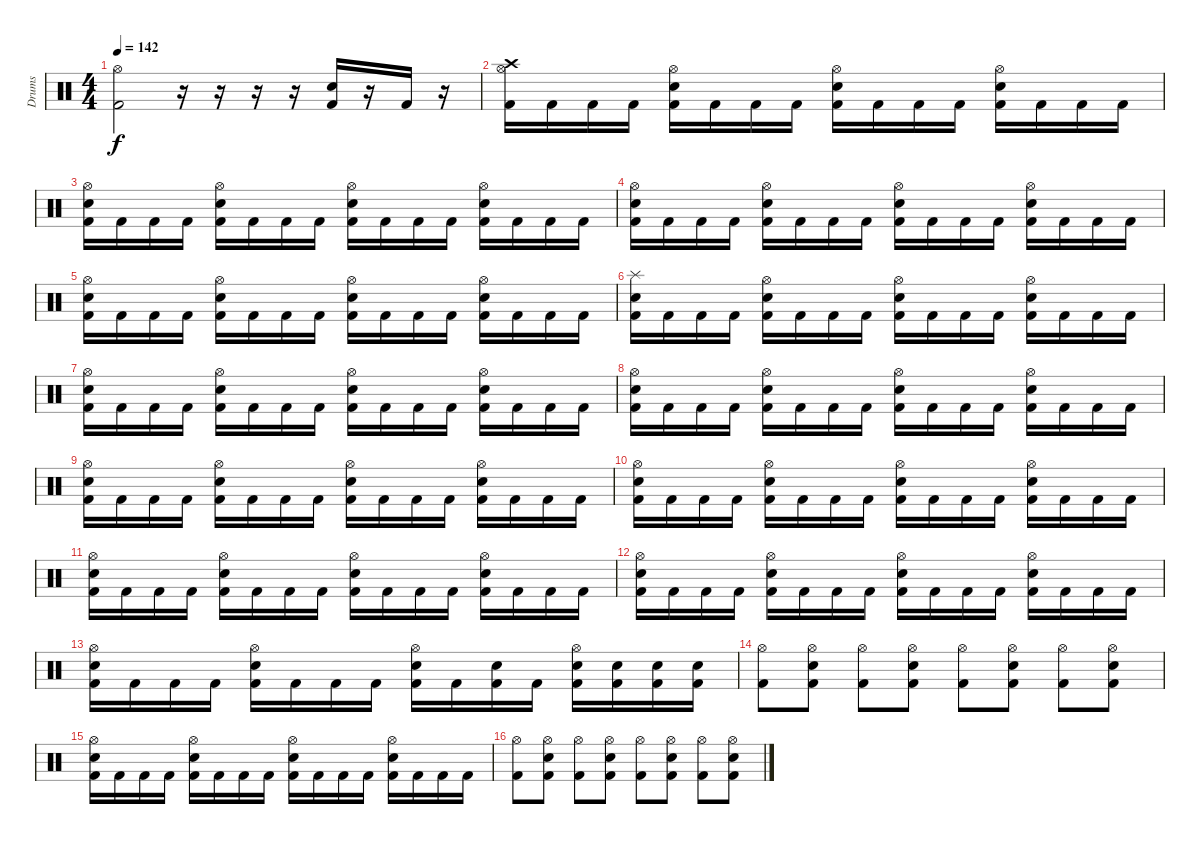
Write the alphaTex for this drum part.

\track ("Drums" "Drums") {instrument percussion}
\staff {score}
\articulation defaults
\ts (4 4)
\tempo 142
\clef neutral
\ks c
("Hi-Hat (open)" "Kick (hit) 2").2{dy f} r.16 r.16 r.16 r.16 ("Electric Snare (hit)" "Kick (hit) 2").16 r.16 "Kick (hit) 2".16 r.16 |
("Crash high (hit)" "Hi-Hat (open)" "Kick (hit) 2").16 "Kick (hit) 2".16 "Kick (hit) 2".16 "Kick (hit) 2".16 ("Electric Snare (hit)" "Hi-Hat (open)" "Kick (hit) 2").16 "Kick (hit) 2".16 "Kick (hit) 2".16 "Kick (hit) 2".16 ("Electric Snare (hit)" "Hi-Hat (open)" "Kick (hit) 2").16 "Kick (hit) 2".16 "Kick (hit) 2".16 "Kick (hit) 2".16 ("Electric Snare (hit)" "Hi-Hat (open)" "Kick (hit) 2").16 "Kick (hit) 2".16 "Kick (hit) 2".16 "Kick (hit) 2".16 |
("Electric Snare (hit)" "Hi-Hat (open)" "Kick (hit) 2").16 "Kick (hit) 2".16 "Kick (hit) 2".16 "Kick (hit) 2".16 ("Electric Snare (hit)" "Hi-Hat (open)" "Kick (hit) 2").16 "Kick (hit) 2".16 "Kick (hit) 2".16 "Kick (hit) 2".16 ("Electric Snare (hit)" "Hi-Hat (open)" "Kick (hit) 2").16 "Kick (hit) 2".16 "Kick (hit) 2".16 "Kick (hit) 2".16 ("Electric Snare (hit)" "Hi-Hat (open)" "Kick (hit) 2").16 "Kick (hit) 2".16 "Kick (hit) 2".16 "Kick (hit) 2".16 |
("Electric Snare (hit)" "Hi-Hat (open)" "Kick (hit) 2").16 "Kick (hit) 2".16 "Kick (hit) 2".16 "Kick (hit) 2".16 ("Electric Snare (hit)" "Hi-Hat (open)" "Kick (hit) 2").16 "Kick (hit) 2".16 "Kick (hit) 2".16 "Kick (hit) 2".16 ("Electric Snare (hit)" "Hi-Hat (open)" "Kick (hit) 2").16 "Kick (hit) 2".16 "Kick (hit) 2".16 "Kick (hit) 2".16 ("Electric Snare (hit)" "Hi-Hat (open)" "Kick (hit) 2").16 "Kick (hit) 2".16 "Kick (hit) 2".16 "Kick (hit) 2".16 |
("Electric Snare (hit)" "Hi-Hat (open)" "Kick (hit) 2").16 "Kick (hit) 2".16 "Kick (hit) 2".16 "Kick (hit) 2".16 ("Electric Snare (hit)" "Hi-Hat (open)" "Kick (hit) 2").16 "Kick (hit) 2".16 "Kick (hit) 2".16 "Kick (hit) 2".16 ("Electric Snare (hit)" "Hi-Hat (open)" "Kick (hit) 2").16 "Kick (hit) 2".16 "Kick (hit) 2".16 "Kick (hit) 2".16 ("Electric Snare (hit)" "Hi-Hat (open)" "Kick (hit) 2").16 "Kick (hit) 2".16 "Kick (hit) 2".16 "Kick (hit) 2".16 |
("Splash (hit)" "Electric Snare (hit)" "Kick (hit) 2").16 "Kick (hit) 2".16 "Kick (hit) 2".16 "Kick (hit) 2".16 ("Electric Snare (hit)" "Hi-Hat (open)" "Kick (hit) 2").16 "Kick (hit) 2".16 "Kick (hit) 2".16 "Kick (hit) 2".16 ("Electric Snare (hit)" "Hi-Hat (open)" "Kick (hit) 2").16 "Kick (hit) 2".16 "Kick (hit) 2".16 "Kick (hit) 2".16 ("Electric Snare (hit)" "Hi-Hat (open)" "Kick (hit) 2").16 "Kick (hit) 2".16 "Kick (hit) 2".16 "Kick (hit) 2".16 |
("Electric Snare (hit)" "Hi-Hat (open)" "Kick (hit) 2").16 "Kick (hit) 2".16 "Kick (hit) 2".16 "Kick (hit) 2".16 ("Electric Snare (hit)" "Hi-Hat (open)" "Kick (hit) 2").16 "Kick (hit) 2".16 "Kick (hit) 2".16 "Kick (hit) 2".16 ("Electric Snare (hit)" "Hi-Hat (open)" "Kick (hit) 2").16 "Kick (hit) 2".16 "Kick (hit) 2".16 "Kick (hit) 2".16 ("Electric Snare (hit)" "Hi-Hat (open)" "Kick (hit) 2").16 "Kick (hit) 2".16 "Kick (hit) 2".16 "Kick (hit) 2".16 |
("Electric Snare (hit)" "Hi-Hat (open)" "Kick (hit) 2").16 "Kick (hit) 2".16 "Kick (hit) 2".16 "Kick (hit) 2".16 ("Electric Snare (hit)" "Hi-Hat (open)" "Kick (hit) 2").16 "Kick (hit) 2".16 "Kick (hit) 2".16 "Kick (hit) 2".16 ("Electric Snare (hit)" "Hi-Hat (open)" "Kick (hit) 2").16 "Kick (hit) 2".16 "Kick (hit) 2".16 "Kick (hit) 2".16 ("Electric Snare (hit)" "Hi-Hat (open)" "Kick (hit) 2").16 "Kick (hit) 2".16 "Kick (hit) 2".16 "Kick (hit) 2".16 |
("Electric Snare (hit)" "Hi-Hat (open)" "Kick (hit) 2").16 "Kick (hit) 2".16 "Kick (hit) 2".16 "Kick (hit) 2".16 ("Electric Snare (hit)" "Hi-Hat (open)" "Kick (hit) 2").16 "Kick (hit) 2".16 "Kick (hit) 2".16 "Kick (hit) 2".16 ("Electric Snare (hit)" "Hi-Hat (open)" "Kick (hit) 2").16 "Kick (hit) 2".16 "Kick (hit) 2".16 "Kick (hit) 2".16 ("Electric Snare (hit)" "Hi-Hat (open)" "Kick (hit) 2").16 "Kick (hit) 2".16 "Kick (hit) 2".16 "Kick (hit) 2".16 |
("Electric Snare (hit)" "Hi-Hat (open)" "Kick (hit) 2").16 "Kick (hit) 2".16 "Kick (hit) 2".16 "Kick (hit) 2".16 ("Electric Snare (hit)" "Hi-Hat (open)" "Kick (hit) 2").16 "Kick (hit) 2".16 "Kick (hit) 2".16 "Kick (hit) 2".16 ("Electric Snare (hit)" "Hi-Hat (open)" "Kick (hit) 2").16 "Kick (hit) 2".16 "Kick (hit) 2".16 "Kick (hit) 2".16 ("Electric Snare (hit)" "Hi-Hat (open)" "Kick (hit) 2").16 "Kick (hit) 2".16 "Kick (hit) 2".16 "Kick (hit) 2".16 |
("Electric Snare (hit)" "Hi-Hat (open)" "Kick (hit) 2").16 "Kick (hit) 2".16 "Kick (hit) 2".16 "Kick (hit) 2".16 ("Electric Snare (hit)" "Hi-Hat (open)" "Kick (hit) 2").16 "Kick (hit) 2".16 "Kick (hit) 2".16 "Kick (hit) 2".16 ("Electric Snare (hit)" "Hi-Hat (open)" "Kick (hit) 2").16 "Kick (hit) 2".16 "Kick (hit) 2".16 "Kick (hit) 2".16 ("Electric Snare (hit)" "Hi-Hat (open)" "Kick (hit) 2").16 "Kick (hit) 2".16 "Kick (hit) 2".16 "Kick (hit) 2".16 |
("Electric Snare (hit)" "Hi-Hat (open)" "Kick (hit) 2").16 "Kick (hit) 2".16 "Kick (hit) 2".16 "Kick (hit) 2".16 ("Electric Snare (hit)" "Hi-Hat (open)" "Kick (hit) 2").16 "Kick (hit) 2".16 "Kick (hit) 2".16 "Kick (hit) 2".16 ("Electric Snare (hit)" "Hi-Hat (open)" "Kick (hit) 2").16 "Kick (hit) 2".16 "Kick (hit) 2".16 "Kick (hit) 2".16 ("Electric Snare (hit)" "Hi-Hat (open)" "Kick (hit) 2").16 "Kick (hit) 2".16 "Kick (hit) 2".16 "Kick (hit) 2".16 |
("Electric Snare (hit)" "Hi-Hat (open)" "Kick (hit) 2").16 "Kick (hit) 2".16 "Kick (hit) 2".16 "Kick (hit) 2".16 ("Electric Snare (hit)" "Hi-Hat (open)" "Kick (hit) 2").16 "Kick (hit) 2".16 "Kick (hit) 2".16 "Kick (hit) 2".16 ("Electric Snare (hit)" "Hi-Hat (open)" "Kick (hit) 2").16 "Kick (hit) 2".16 ("Electric Snare (hit)" "Kick (hit) 2").16 "Kick (hit) 2".16 ("Electric Snare (hit)" "Hi-Hat (open)" "Kick (hit) 2").16 ("Electric Snare (hit)" "Kick (hit) 2").16 ("Electric Snare (hit)" "Kick (hit) 2").16 ("Electric Snare (hit)" "Kick (hit) 2").16 |
("Hi-Hat (open)" "Kick (hit) 2").8 ("Hi-Hat (open)" "Electric Snare (hit)" "Kick (hit) 2").8 ("Hi-Hat (open)" "Kick (hit) 2").8 ("Hi-Hat (open)" "Electric Snare (hit)" "Kick (hit) 2").8 ("Hi-Hat (open)" "Kick (hit) 2").8 ("Hi-Hat (open)" "Electric Snare (hit)" "Kick (hit) 2").8 ("Hi-Hat (open)" "Kick (hit) 2").8 ("Hi-Hat (open)" "Electric Snare (hit)" "Kick (hit) 2").8 |
("Electric Snare (hit)" "Hi-Hat (open)" "Kick (hit) 2").16 "Kick (hit) 2".16 "Kick (hit) 2".16 "Kick (hit) 2".16 ("Electric Snare (hit)" "Hi-Hat (open)" "Kick (hit) 2").16 "Kick (hit) 2".16 "Kick (hit) 2".16 "Kick (hit) 2".16 ("Electric Snare (hit)" "Hi-Hat (open)" "Kick (hit) 2").16 "Kick (hit) 2".16 "Kick (hit) 2".16 "Kick (hit) 2".16 ("Electric Snare (hit)" "Hi-Hat (open)" "Kick (hit) 2").16 "Kick (hit) 2".16 "Kick (hit) 2".16 "Kick (hit) 2".16 |
("Hi-Hat (open)" "Kick (hit) 2").8 ("Hi-Hat (open)" "Electric Snare (hit)" "Kick (hit) 2").8 ("Hi-Hat (open)" "Kick (hit) 2").8 ("Hi-Hat (open)" "Electric Snare (hit)" "Kick (hit) 2").8 ("Hi-Hat (open)" "Kick (hit) 2").8 ("Hi-Hat (open)" "Electric Snare (hit)" "Kick (hit) 2").8 ("Hi-Hat (open)" "Kick (hit) 2").8 ("Hi-Hat (open)" "Electric Snare (hit)" "Kick (hit) 2").8
